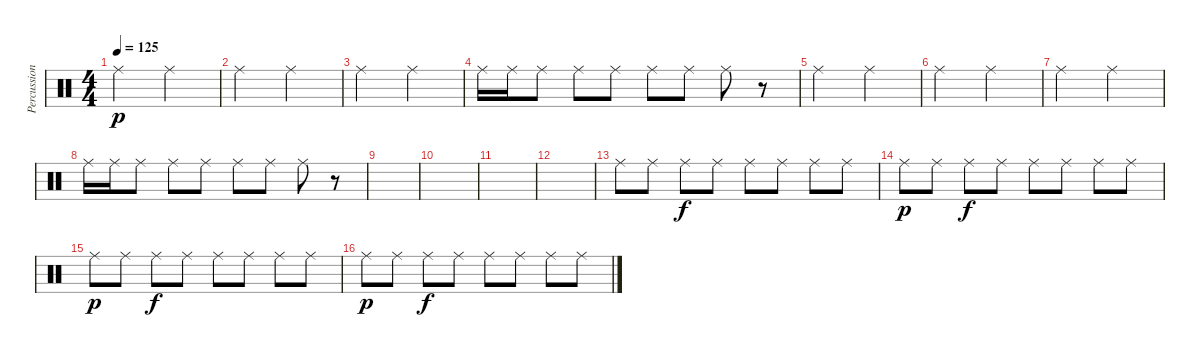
\track ("Percussion" "Percussion") {instrument percussion}
\staff {score}
\articulation defaults
\ts (4 4)
\tempo 125
\clef neutral
\ks c "Ride (middle)".2{dy p} "Ride (middle)".2
|
"Ride (middle)".2 "Ride (middle)".2 |
"Ride (middle)".2 "Ride (middle)".2 |
"Ride (middle)".16 "Ride (middle)".16 "Ride (middle)".8 "Ride (middle)".8 "Ride (middle)".8 "Ride (middle)".8 "Ride (middle)".8 "Ride (middle)".8 r.8 |
"Ride (middle)".2 "Ride (middle)".2 |
"Ride (middle)".2 "Ride (middle)".2 |
"Ride (middle)".2 "Ride (middle)".2 |
"Ride (middle)".16 "Ride (middle)".16 "Ride (middle)".8 "Ride (middle)".8 "Ride (middle)".8 "Ride (middle)".8 "Ride (middle)".8 "Ride (middle)".8 r.8 |
|
|
|
|
"Ride (middle)".8 "Ride (middle)".8 "Ride (middle)".8{dy f} "Ride (middle)".8 "Ride (middle)".8 "Ride (middle)".8 "Ride (middle)".8 "Ride (middle)".8 |
"Ride (middle)".8{dy p} "Ride (middle)".8 "Ride (middle)".8{dy f} "Ride (middle)".8 "Ride (middle)".8 "Ride (middle)".8 "Ride (middle)".8 "Ride (middle)".8 |
"Ride (middle)".8{dy p} "Ride (middle)".8 "Ride (middle)".8{dy f} "Ride (middle)".8 "Ride (middle)".8 "Ride (middle)".8 "Ride (middle)".8 "Ride (middle)".8 |
"Ride (middle)".8{dy p} "Ride (middle)".8 "Ride (middle)".8{dy f} "Ride (middle)".8 "Ride (middle)".8 "Ride (middle)".8 "Ride (middle)".8 "Ride (middle)".8
